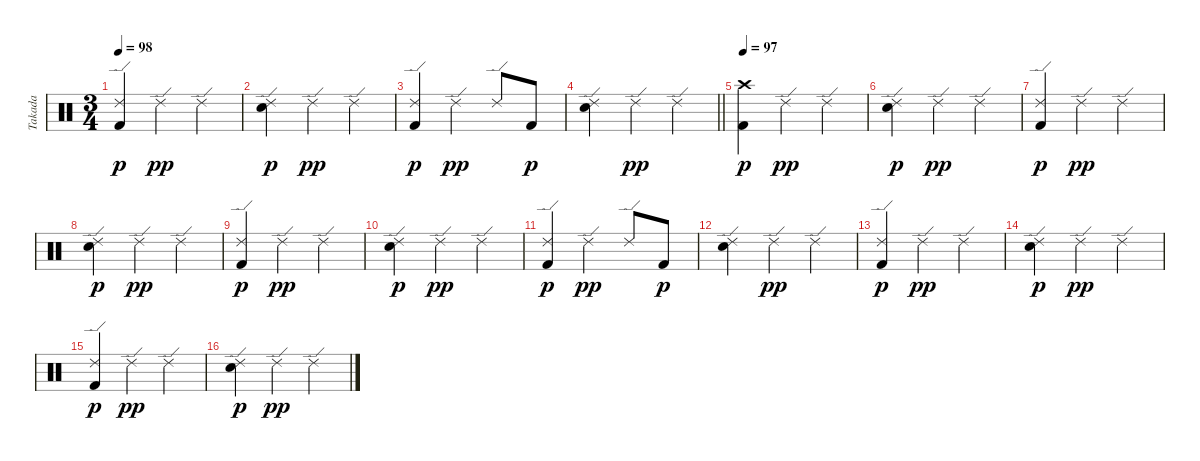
\track ("Takada" "Takada") {instrument percussion}
\staff {score}
\articulation defaults
\ts (3 4)
\tempo 98
\clef neutral
\ks c
("Ride (edge) 2" "Kick (hit) 2").4{dy p} "Ride (edge) 2".4{dy pp} "Ride (edge) 2".4 |
("Ride (edge) 2" "Electric Snare (hit)").4{dy p} "Ride (edge) 2".4{dy pp} "Ride (edge) 2".4 |
("Ride (edge) 2" "Kick (hit) 2").4{dy p} "Ride (edge) 2".4{dy pp} "Ride (edge) 2".8 "Kick (hit) 2".8{dy p} |
\barLineRight lightlight
("Ride (edge) 2" "Electric Snare (hit)").4 "Ride (edge) 2".4{dy pp} "Ride (edge) 2".4 |
\section ("" "")
\tempo 97
("Crash high (hit)" "Kick (hit) 2").4{dy p} "Ride (edge) 2".4{dy pp} "Ride (edge) 2".4 |
("Ride (edge) 2" "Electric Snare (hit)").4{dy p} "Ride (edge) 2".4{dy pp} "Ride (edge) 2".4 |
("Ride (edge) 2" "Kick (hit) 2").4{dy p} "Ride (edge) 2".4{dy pp} "Ride (edge) 2".4 |
("Ride (edge) 2" "Electric Snare (hit)").4{dy p} "Ride (edge) 2".4{dy pp} "Ride (edge) 2".4 |
("Ride (edge) 2" "Kick (hit) 2").4{dy p} "Ride (edge) 2".4{dy pp} "Ride (edge) 2".4 |
("Ride (edge) 2" "Electric Snare (hit)").4{dy p} "Ride (edge) 2".4{dy pp} "Ride (edge) 2".4 |
("Ride (edge) 2" "Kick (hit) 2").4{dy p} "Ride (edge) 2".4{dy pp} "Ride (edge) 2".8 "Kick (hit) 2".8{dy p} |
("Ride (edge) 2" "Electric Snare (hit)").4 "Ride (edge) 2".4{dy pp} "Ride (edge) 2".4 |
("Ride (edge) 2" "Kick (hit) 2").4{dy p} "Ride (edge) 2".4{dy pp} "Ride (edge) 2".4 |
("Ride (edge) 2" "Electric Snare (hit)").4{dy p} "Ride (edge) 2".4{dy pp} "Ride (edge) 2".4 |
("Ride (edge) 2" "Kick (hit) 2").4{dy p} "Ride (edge) 2".4{dy pp} "Ride (edge) 2".4 |
("Ride (edge) 2" "Electric Snare (hit)").4{dy p} "Ride (edge) 2".4{dy pp} "Ride (edge) 2".4
